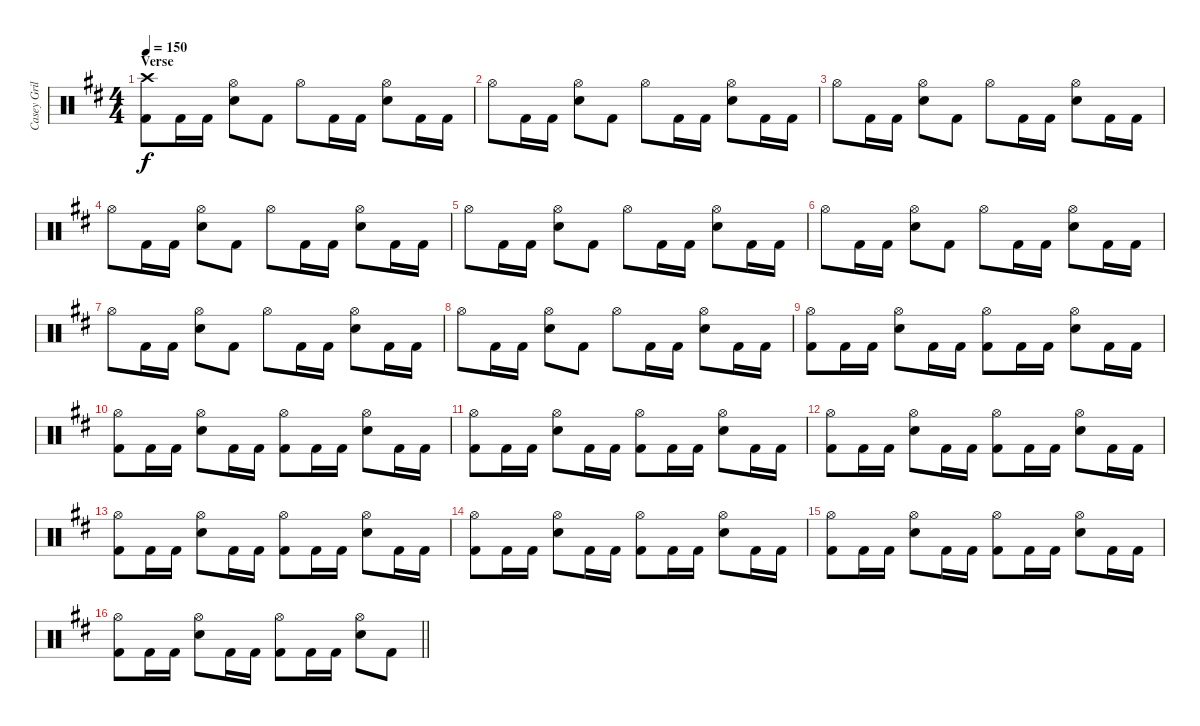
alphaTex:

\track ("Casey Grillo" "Casey Gril") {instrument percussion}
\staff {score}
\articulation defaults
\ts (4 4)
\section ("" "Verse")
\tempo 150
\clef neutral
\ks bminor
("Crash high (hit)" "Kick (hit) 2").8{dy f} "Kick (hit) 2".16 "Kick (hit) 2".16 ("Hi-Hat (open)" "Electric Snare (hit)").8 "Kick (hit) 2".8 "Hi-Hat (open)".8 "Kick (hit) 2".16 "Kick (hit) 2".16 ("Hi-Hat (open)" "Electric Snare (hit)").8 "Kick (hit) 2".16 "Kick (hit) 2".16 |
"Hi-Hat (open)".8 "Kick (hit) 2".16 "Kick (hit) 2".16 ("Hi-Hat (open)" "Electric Snare (hit)").8 "Kick (hit) 2".8 "Hi-Hat (open)".8 "Kick (hit) 2".16 "Kick (hit) 2".16 ("Hi-Hat (open)" "Electric Snare (hit)").8 "Kick (hit) 2".16 "Kick (hit) 2".16 |
"Hi-Hat (open)".8 "Kick (hit) 2".16 "Kick (hit) 2".16 ("Hi-Hat (open)" "Electric Snare (hit)").8 "Kick (hit) 2".8 "Hi-Hat (open)".8 "Kick (hit) 2".16 "Kick (hit) 2".16 ("Hi-Hat (open)" "Electric Snare (hit)").8 "Kick (hit) 2".16 "Kick (hit) 2".16 |
"Hi-Hat (open)".8 "Kick (hit) 2".16 "Kick (hit) 2".16 ("Hi-Hat (open)" "Electric Snare (hit)").8 "Kick (hit) 2".8 "Hi-Hat (open)".8 "Kick (hit) 2".16 "Kick (hit) 2".16 ("Hi-Hat (open)" "Electric Snare (hit)").8 "Kick (hit) 2".16 "Kick (hit) 2".16 |
"Hi-Hat (open)".8 "Kick (hit) 2".16 "Kick (hit) 2".16 ("Hi-Hat (open)" "Electric Snare (hit)").8 "Kick (hit) 2".8 "Hi-Hat (open)".8 "Kick (hit) 2".16 "Kick (hit) 2".16 ("Hi-Hat (open)" "Electric Snare (hit)").8 "Kick (hit) 2".16 "Kick (hit) 2".16 |
"Hi-Hat (open)".8 "Kick (hit) 2".16 "Kick (hit) 2".16 ("Hi-Hat (open)" "Electric Snare (hit)").8 "Kick (hit) 2".8 "Hi-Hat (open)".8 "Kick (hit) 2".16 "Kick (hit) 2".16 ("Hi-Hat (open)" "Electric Snare (hit)").8 "Kick (hit) 2".16 "Kick (hit) 2".16 |
"Hi-Hat (open)".8 "Kick (hit) 2".16 "Kick (hit) 2".16 ("Hi-Hat (open)" "Electric Snare (hit)").8 "Kick (hit) 2".8 "Hi-Hat (open)".8 "Kick (hit) 2".16 "Kick (hit) 2".16 ("Hi-Hat (open)" "Electric Snare (hit)").8 "Kick (hit) 2".16 "Kick (hit) 2".16 |
"Hi-Hat (open)".8 "Kick (hit) 2".16 "Kick (hit) 2".16 ("Hi-Hat (open)" "Electric Snare (hit)").8 "Kick (hit) 2".8 "Hi-Hat (open)".8 "Kick (hit) 2".16 "Kick (hit) 2".16 ("Hi-Hat (open)" "Electric Snare (hit)").8 "Kick (hit) 2".16 "Kick (hit) 2".16 |
("Hi-Hat (open)" "Kick (hit) 2").8 "Kick (hit) 2".16 "Kick (hit) 2".16 ("Hi-Hat (open)" "Electric Snare (hit)").8 "Kick (hit) 2".16 "Kick (hit) 2".16 ("Hi-Hat (open)" "Kick (hit) 2").8 "Kick (hit) 2".16 "Kick (hit) 2".16 ("Hi-Hat (open)" "Electric Snare (hit)").8 "Kick (hit) 2".16 "Kick (hit) 2".16 |
("Hi-Hat (open)" "Kick (hit) 2").8 "Kick (hit) 2".16 "Kick (hit) 2".16 ("Hi-Hat (open)" "Electric Snare (hit)").8 "Kick (hit) 2".16 "Kick (hit) 2".16 ("Hi-Hat (open)" "Kick (hit) 2").8 "Kick (hit) 2".16 "Kick (hit) 2".16 ("Hi-Hat (open)" "Electric Snare (hit)").8 "Kick (hit) 2".16 "Kick (hit) 2".16 |
("Hi-Hat (open)" "Kick (hit) 2").8 "Kick (hit) 2".16 "Kick (hit) 2".16 ("Hi-Hat (open)" "Electric Snare (hit)").8 "Kick (hit) 2".16 "Kick (hit) 2".16 ("Hi-Hat (open)" "Kick (hit) 2").8 "Kick (hit) 2".16 "Kick (hit) 2".16 ("Hi-Hat (open)" "Electric Snare (hit)").8 "Kick (hit) 2".16 "Kick (hit) 2".16 |
("Hi-Hat (open)" "Kick (hit) 2").8 "Kick (hit) 2".16 "Kick (hit) 2".16 ("Hi-Hat (open)" "Electric Snare (hit)").8 "Kick (hit) 2".16 "Kick (hit) 2".16 ("Hi-Hat (open)" "Kick (hit) 2").8 "Kick (hit) 2".16 "Kick (hit) 2".16 ("Hi-Hat (open)" "Electric Snare (hit)").8 "Kick (hit) 2".16 "Kick (hit) 2".16 |
("Hi-Hat (open)" "Kick (hit) 2").8 "Kick (hit) 2".16 "Kick (hit) 2".16 ("Hi-Hat (open)" "Electric Snare (hit)").8 "Kick (hit) 2".16 "Kick (hit) 2".16 ("Hi-Hat (open)" "Kick (hit) 2").8 "Kick (hit) 2".16 "Kick (hit) 2".16 ("Hi-Hat (open)" "Electric Snare (hit)").8 "Kick (hit) 2".16 "Kick (hit) 2".16 |
("Hi-Hat (open)" "Kick (hit) 2").8 "Kick (hit) 2".16 "Kick (hit) 2".16 ("Hi-Hat (open)" "Electric Snare (hit)").8 "Kick (hit) 2".16 "Kick (hit) 2".16 ("Hi-Hat (open)" "Kick (hit) 2").8 "Kick (hit) 2".16 "Kick (hit) 2".16 ("Hi-Hat (open)" "Electric Snare (hit)").8 "Kick (hit) 2".16 "Kick (hit) 2".16 |
("Hi-Hat (open)" "Kick (hit) 2").8 "Kick (hit) 2".16 "Kick (hit) 2".16 ("Hi-Hat (open)" "Electric Snare (hit)").8 "Kick (hit) 2".16 "Kick (hit) 2".16 ("Hi-Hat (open)" "Kick (hit) 2").8 "Kick (hit) 2".16 "Kick (hit) 2".16 ("Hi-Hat (open)" "Electric Snare (hit)").8 "Kick (hit) 2".16 "Kick (hit) 2".16 |
\barLineRight lightlight
("Hi-Hat (open)" "Kick (hit) 2").8 "Kick (hit) 2".16 "Kick (hit) 2".16 ("Hi-Hat (open)" "Electric Snare (hit)").8 "Kick (hit) 2".16 "Kick (hit) 2".16 ("Hi-Hat (open)" "Kick (hit) 2").8 "Kick (hit) 2".16 "Kick (hit) 2".16 ("Hi-Hat (open)" "Electric Snare (hit)").8 "Kick (hit) 2".8
